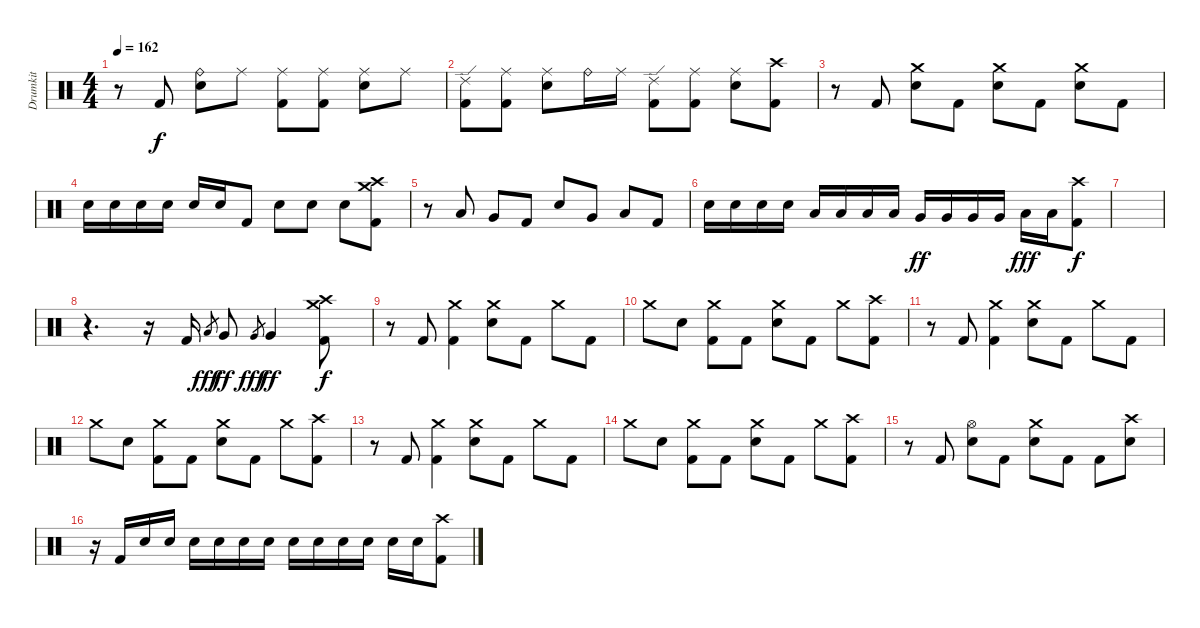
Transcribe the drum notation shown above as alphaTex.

\track ("Drumkit" "Drumkit") {instrument percussion}
\staff {score}
\articulation defaults
\ts (4 4)
\tempo 162
\clef neutral
\ks c
r.8{dy f} "Kick (hit) 2".8 ("Ride (bell)" "Electric Snare (hit)").8 "Ride (middle)".8 ("Ride (middle)" "Kick (hit) 2").8 ("Ride (middle)" "Kick (hit) 2").8 ("Ride (middle)" "Electric Snare (hit)").8 "Ride (middle)".8 |
("Ride (edge) 2" "Kick (hit) 2").8 ("Ride (middle)" "Kick (hit) 2").8 ("Ride (middle)" "Electric Snare (hit)").8 "Ride (bell)".16 "Ride (middle)".16 ("Ride (edge) 2" "Kick (hit) 2").8 ("Ride (middle)" "Kick (hit) 2").8 ("Ride (middle)" "Electric Snare (hit)").8 ("Crash high (hit)" "Kick (hit) 2").8 |
r.8 "Kick (hit) 2".8 ("Crash medium (hit)" "Electric Snare (hit)").8 "Kick (hit) 2".8 ("Crash medium (hit)" "Electric Snare (hit)").8 "Kick (hit) 2".8 ("Crash medium (hit)" "Electric Snare (hit)").8 "Kick (hit) 2".8 |
"Electric Snare (hit)".16 "Electric Snare (hit)".16 "Electric Snare (hit)".16 "Electric Snare (hit)".16 "Electric Snare (hit)".16 "Electric Snare (hit)".16 "Kick (hit) 2".8 "Electric Snare (hit)".8 "Electric Snare (hit)".8 "Electric Snare (hit)".8 ("Crash high (hit)" "Crash medium (hit)" "Kick (hit) 2").8 |
r.8 "Low Tom (hit)".8 "Very Low Tom (hit)".8 "Kick (hit) 2".8 "Electric Snare (hit)".8 "Very Low Tom (hit)".8 "Low Floor Tom (hit)".8 "Kick (hit) 2".8 |
"Electric Snare (hit)".16 "Electric Snare (hit)".16 "Electric Snare (hit)".16 "Electric Snare (hit)".16 "Low Tom (hit)".16 "Low Tom (hit)".16 "Low Tom (hit)".16 "Low Tom (hit)".16 "Very Low Tom (hit)".16{dy ff} "Very Low Tom (hit)".16 "Very Low Tom (hit)".16 "Very Low Tom (hit)".16 "Low Floor Tom (hit)".16{dy fff} "Low Floor Tom (hit)".16 ("Crash high (hit)" "Kick (hit) 2").8{dy f} |
|
r.4{d} r.16 "Kick (hit) 2".16 "Low Floor Tom (hit)".8{gr dy fff} "Very Low Tom (hit)".8{dy ff} "Very Low Tom (hit)".8{gr dy fff} "Very Low Tom (hit)".4{dy ff} ("Crash high (hit)" "Crash medium (hit)" "Kick (hit) 2").8{dy f} |
r.8 "Kick (hit) 2".8 ("Crash medium (hit)" "Kick (hit) 2").4 ("Crash medium (hit)" "Electric Snare (hit)").8 "Kick (hit) 2".8 "Crash medium (hit)".8 "Kick (hit) 2".8 |
"Crash medium (hit)".8 "Electric Snare (hit)".8 ("Crash medium (hit)" "Kick (hit) 2").8 "Kick (hit) 2".8 ("Crash medium (hit)" "Electric Snare (hit)").8 "Kick (hit) 2".8 "Crash medium (hit)".8 ("Crash high (hit)" "Kick (hit) 2").8 |
r.8 "Kick (hit) 2".8 ("Crash medium (hit)" "Kick (hit) 2").4 ("Crash medium (hit)" "Electric Snare (hit)").8 "Kick (hit) 2".8 "Crash medium (hit)".8 "Kick (hit) 2".8 |
"Crash medium (hit)".8 "Electric Snare (hit)".8 ("Crash medium (hit)" "Kick (hit) 2").8 "Kick (hit) 2".8 ("Crash medium (hit)" "Electric Snare (hit)").8 "Kick (hit) 2".8 "Crash medium (hit)".8 ("Crash high (hit)" "Kick (hit) 2").8 |
r.8 "Kick (hit) 2".8 ("Crash medium (hit)" "Kick (hit) 2").4 ("Crash medium (hit)" "Electric Snare (hit)").8 "Kick (hit) 2".8 "Crash medium (hit)".8 "Kick (hit) 2".8 |
"Crash medium (hit)".8 "Electric Snare (hit)".8 ("Crash medium (hit)" "Kick (hit) 2").8 "Kick (hit) 2".8 ("Crash medium (hit)" "Electric Snare (hit)").8 "Kick (hit) 2".8 "Crash medium (hit)".8 ("Crash high (hit)" "Kick (hit) 2").8 |
r.8 "Kick (hit) 2".8 ("Hi-Hat (open)" "Electric Snare (hit)").8 "Kick (hit) 2".8 ("Crash medium (hit)" "Electric Snare (hit)").8 "Kick (hit) 2".8 "Kick (hit) 2".8 ("Crash high (hit)" "Electric Snare (hit)").8 |
r.16 "Kick (hit) 2".16 "Electric Snare (hit)".16 "Electric Snare (hit)".16 "Electric Snare (hit)".16 "Electric Snare (hit)".16 "Electric Snare (hit)".16 "Electric Snare (hit)".16 "Electric Snare (hit)".16 "Electric Snare (hit)".16 "Electric Snare (hit)".16 "Electric Snare (hit)".16 "Electric Snare (hit)".16 "Electric Snare (hit)".16 ("Crash high (hit)" "Kick (hit) 2").8
